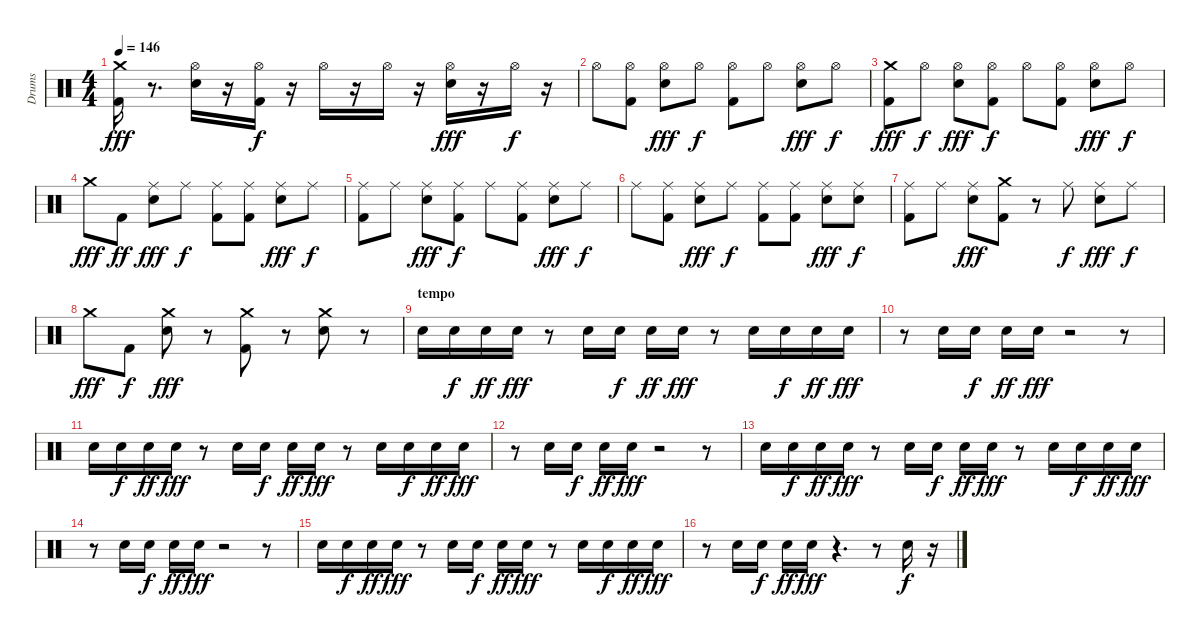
\track ("Drums" "Drums") {instrument percussion}
\staff {score}
\articulation defaults
\ts (4 4)
\tempo 146
\clef neutral
\ks c
("Kick (hit) 2" "Crash medium (hit)").16{dy fff} r.8{d} ("Snare (hit) 2" "Hi-Hat (open)").16 r.16 ("Kick (hit) 2" "Hi-Hat (open)").16{dy f} r.16 "Hi-Hat (open)".16 r.16 "Hi-Hat (open)".16 r.16 ("Snare (hit) 2" "Hi-Hat (open)").16{dy fff} r.16 "Hi-Hat (open)".16{dy f} r.16 |
"Hi-Hat (open)".8 ("Kick (hit) 2" "Hi-Hat (open)").8 ("Snare (hit) 2" "Hi-Hat (open)").8{dy fff} "Hi-Hat (open)".8{dy f} ("Kick (hit) 2" "Hi-Hat (open)").8 "Hi-Hat (open)".8 ("Snare (hit) 2" "Hi-Hat (open)").8{dy fff} "Hi-Hat (open)".8{dy f} |
("Kick (hit) 2" "Crash medium (hit)").8{dy fff} "Hi-Hat (open)".8{dy f} ("Snare (hit) 2" "Hi-Hat (open)").8{dy fff} ("Kick (hit) 2" "Hi-Hat (open)").8{dy f} "Hi-Hat (open)".8 ("Kick (hit) 2" "Hi-Hat (open)").8 ("Snare (hit) 2" "Hi-Hat (open)").8{dy fff} "Hi-Hat (open)".8{dy f} |
"Crash medium (hit)".8{dy fff} "Kick (hit) 2".8{dy ff} ("Snare (hit) 2" "Ride (middle)").8{dy fff} "Ride (middle)".8{dy f} ("Kick (hit) 2" "Ride (middle)").8 ("Kick (hit) 2" "Ride (middle)").8 ("Snare (hit) 2" "Ride (middle)").8{dy fff} "Ride (middle)".8{dy f} |
("Kick (hit) 2" "Ride (middle)").8 "Ride (middle)".8 ("Snare (hit) 2" "Ride (middle)").8{dy fff} ("Kick (hit) 2" "Ride (middle)").8{dy f} "Ride (middle)".8 ("Kick (hit) 2" "Ride (middle)").8 ("Snare (hit) 2" "Ride (middle)").8{dy fff} "Ride (middle)".8{dy f} |
"Ride (middle)".8 ("Kick (hit) 2" "Ride (middle)").8 ("Snare (hit) 2" "Ride (middle)").8{dy fff} "Ride (middle)".8{dy f} ("Kick (hit) 2" "Ride (middle)").8 ("Kick (hit) 2" "Ride (middle)").8 ("Snare (hit) 2" "Ride (middle)").8{dy fff} ("Snare (hit) 2" "Ride (middle)").8{dy f} |
("Kick (hit) 2" "Ride (middle)").8 "Ride (middle)".8 ("Snare (hit) 2" "Ride (middle)").8{dy fff} ("Kick (hit) 2" "Crash medium (hit)").8 r.8 "Ride (middle)".8{dy f} ("Snare (hit) 2" "Ride (middle)").8{dy fff} "Ride (middle)".8{dy f} |
"Crash medium (hit)".8{dy fff} "Kick (hit) 2".8{dy f} ("Snare (hit) 2" "Crash medium (hit)").8{dy fff} r.8 ("Kick (hit) 2" "Crash medium (hit)").8 r.8 ("Snare (hit) 2" "Crash medium (hit)").8 r.8 |
\section ("" "tempo")
"Snare (hit) 2".16 "Snare (hit) 2".16{dy f} "Snare (hit) 2".16{dy ff} "Snare (hit) 2".16{dy fff} r.8 "Snare (hit) 2".16 "Snare (hit) 2".16{dy f} "Snare (hit) 2".16{dy ff} "Snare (hit) 2".16{dy fff} r.8 "Snare (hit) 2".16 "Snare (hit) 2".16{dy f} "Snare (hit) 2".16{dy ff} "Snare (hit) 2".16{dy fff} |
r.8 "Snare (hit) 2".16 "Snare (hit) 2".16{dy f} "Snare (hit) 2".16{dy ff} "Snare (hit) 2".16{dy fff} r.2 r.8 |
"Snare (hit) 2".16 "Snare (hit) 2".16{dy f} "Snare (hit) 2".16{dy ff} "Snare (hit) 2".16{dy fff} r.8 "Snare (hit) 2".16 "Snare (hit) 2".16{dy f} "Snare (hit) 2".16{dy ff} "Snare (hit) 2".16{dy fff} r.8 "Snare (hit) 2".16 "Snare (hit) 2".16{dy f} "Snare (hit) 2".16{dy ff} "Snare (hit) 2".16{dy fff} |
r.8 "Snare (hit) 2".16 "Snare (hit) 2".16{dy f} "Snare (hit) 2".16{dy ff} "Snare (hit) 2".16{dy fff} r.2 r.8 |
"Snare (hit) 2".16 "Snare (hit) 2".16{dy f} "Snare (hit) 2".16{dy ff} "Snare (hit) 2".16{dy fff} r.8 "Snare (hit) 2".16 "Snare (hit) 2".16{dy f} "Snare (hit) 2".16{dy ff} "Snare (hit) 2".16{dy fff} r.8 "Snare (hit) 2".16 "Snare (hit) 2".16{dy f} "Snare (hit) 2".16{dy ff} "Snare (hit) 2".16{dy fff} |
r.8 "Snare (hit) 2".16 "Snare (hit) 2".16{dy f} "Snare (hit) 2".16{dy ff} "Snare (hit) 2".16{dy fff} r.2 r.8 |
"Snare (hit) 2".16 "Snare (hit) 2".16{dy f} "Snare (hit) 2".16{dy ff} "Snare (hit) 2".16{dy fff} r.8 "Snare (hit) 2".16 "Snare (hit) 2".16{dy f} "Snare (hit) 2".16{dy ff} "Snare (hit) 2".16{dy fff} r.8 "Snare (hit) 2".16 "Snare (hit) 2".16{dy f} "Snare (hit) 2".16{dy ff} "Snare (hit) 2".16{dy fff} |
r.8 "Snare (hit) 2".16 "Snare (hit) 2".16{dy f} "Snare (hit) 2".16{dy ff} "Snare (hit) 2".16{dy fff} r.4{d} r.8 "Snare (hit) 2".16{dy f} r.16
